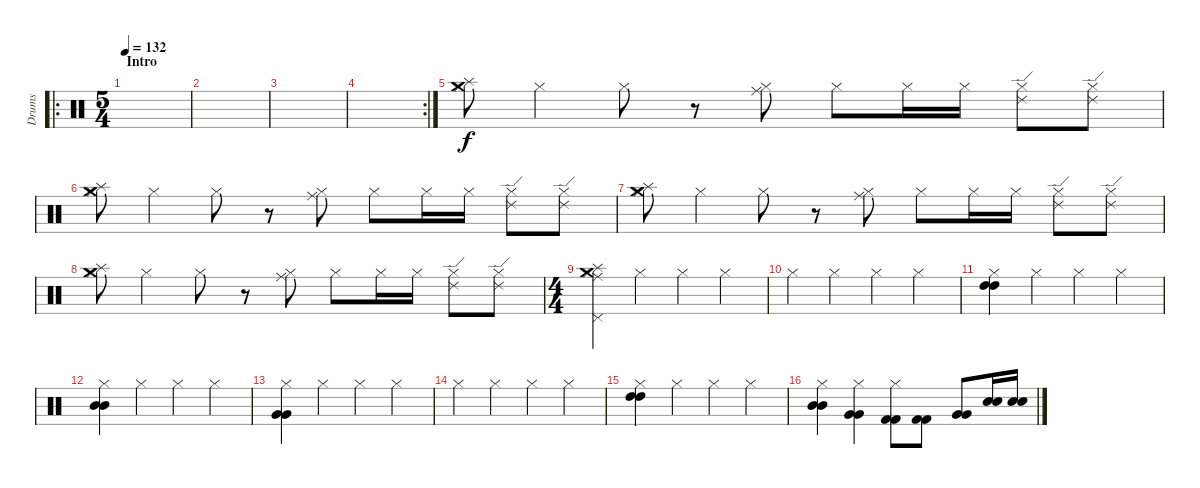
\track ("Drums" "Drums") {instrument percussion}
\staff {score}
\articulation defaults
\ro
\ts (5 4)
\section ("" "Intro")
\tempo 132
\clef neutral
\ks c
|
|
|
\rc 2
|
("Hi-Hat (closed)" "Splash (hit)" "Crash medium (hit)").8 "Hi-Hat (closed)".4 "Hi-Hat (closed)".8 r.8 ("Hi-Hat (closed)" "Ride (middle)").8 "Hi-Hat (closed)".8 "Hi-Hat (closed)".16 "Hi-Hat (closed)".16 ("Ride (edge) 2" "Hi-Hat (closed)").8 ("Ride (edge) 2" "Hi-Hat (closed)").8 |
("Hi-Hat (closed)" "Splash (hit)" "Crash medium (hit)").8 "Hi-Hat (closed)".4 "Hi-Hat (closed)".8 r.8 ("Hi-Hat (closed)" "Ride (middle)").8 "Hi-Hat (closed)".8 "Hi-Hat (closed)".16 "Hi-Hat (closed)".16 ("Ride (edge) 2" "Hi-Hat (closed)").8 ("Ride (edge) 2" "Hi-Hat (closed)").8 |
("Hi-Hat (closed)" "Splash (hit)" "Crash medium (hit)").8 "Hi-Hat (closed)".4 "Hi-Hat (closed)".8 r.8 ("Hi-Hat (closed)" "Ride (middle)").8 "Hi-Hat (closed)".8 "Hi-Hat (closed)".16 "Hi-Hat (closed)".16 ("Ride (edge) 2" "Hi-Hat (closed)").8 ("Ride (edge) 2" "Hi-Hat (closed)").8 |
("Hi-Hat (closed)" "Splash (hit)" "Crash medium (hit)").8 "Hi-Hat (closed)".4 "Hi-Hat (closed)".8 r.8 ("Hi-Hat (closed)" "Ride (middle)").8 "Hi-Hat (closed)".8 "Hi-Hat (closed)".16 "Hi-Hat (closed)".16 ("Ride (edge) 2" "Hi-Hat (closed)").8 ("Ride (edge) 2" "Hi-Hat (closed)").8 |
\ts (4 4)
("Splash (hit)" "Ride (middle)" "Hi-Hat (closed)" "Pedal Hi-Hat (hit)" "Crash medium (hit)").4 "Hi-Hat (closed)".4 "Hi-Hat (closed)".4 "Hi-Hat (closed)".4 |
"Hi-Hat (closed)".4 "Hi-Hat (closed)".4 "Hi-Hat (closed)".4 "Hi-Hat (closed)".4 |
("Hi-Hat (closed)" "High Tom (hit)" "High Tom (hit)").4 "Hi-Hat (closed)".4 "Hi-Hat (closed)".4 "Hi-Hat (closed)".4 |
("Hi-Hat (closed)" "Mid Tom (hit)" "Mid Tom (hit)").4 "Hi-Hat (closed)".4 "Hi-Hat (closed)".4 "Hi-Hat (closed)".4 |
("Hi-Hat (closed)" "Very Low Tom (hit)" "Very Low Tom (hit)").4 "Hi-Hat (closed)".4 "Hi-Hat (closed)".4 "Hi-Hat (closed)".4 |
"Hi-Hat (closed)".4 "Hi-Hat (closed)".4 "Hi-Hat (closed)".4 "Hi-Hat (closed)".4 |
("Hi-Hat (closed)" "High Tom (hit)" "High Tom (hit)").4 "Hi-Hat (closed)".4 "Hi-Hat (closed)".4 "Hi-Hat (closed)".4 |
("Hi-Hat (closed)" "Mid Tom (hit)" "Mid Tom (hit)").4 ("Very Low Tom (hit)" "Very Low Tom (hit)" "Hi-Hat (closed)").4 ("Kick (hit) 2" "Kick (hit) 2" "Hi-Hat (closed)").8 ("Kick (hit) 2" "Kick (hit) 2").8 ("Very Low Tom (hit)" "Very Low Tom (hit)").8 ("Snare (hit) 2" "Snare (hit) 2").16 ("Snare (hit) 2" "Snare (hit) 2").16
